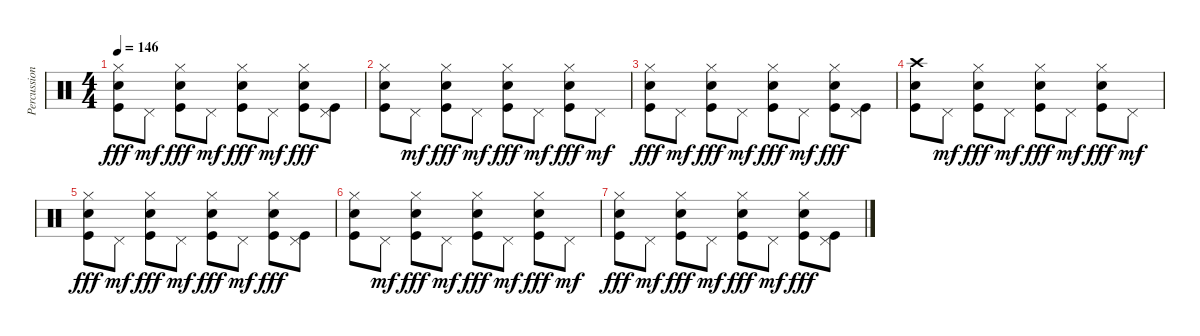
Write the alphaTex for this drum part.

\track ("Percussions" "Percussion") {instrument percussion}
\staff {score}
\articulation defaults
\ts (4 4)
\tempo 146
\clef neutral
\ks c
("Hi-Hat (closed)" "Snare (hit) 2" "Kick (hit)").8{dy fff} "Pedal Hi-Hat (hit)".8{dy mf} ("Hi-Hat (closed)" "Snare (hit) 2" "Kick (hit)").8{dy fff} "Pedal Hi-Hat (hit)".8{dy mf} ("Hi-Hat (closed)" "Snare (hit) 2" "Kick (hit)").8{dy fff} "Pedal Hi-Hat (hit)".8{dy mf} ("Hi-Hat (closed)" "Snare (hit) 2" "Kick (hit)").8{dy fff} ("Pedal Hi-Hat (hit)" "Kick (hit)").8 |
("Hi-Hat (closed)" "Snare (hit) 2" "Kick (hit)").8 "Pedal Hi-Hat (hit)".8{dy mf} ("Hi-Hat (closed)" "Snare (hit) 2" "Kick (hit)").8{dy fff} "Pedal Hi-Hat (hit)".8{dy mf} ("Hi-Hat (closed)" "Snare (hit) 2" "Kick (hit)").8{dy fff} "Pedal Hi-Hat (hit)".8{dy mf} ("Hi-Hat (closed)" "Snare (hit) 2" "Kick (hit)").8{dy fff} "Pedal Hi-Hat (hit)".8{dy mf} |
("Hi-Hat (closed)" "Snare (hit) 2" "Kick (hit)").8{dy fff} "Pedal Hi-Hat (hit)".8{dy mf} ("Hi-Hat (closed)" "Snare (hit) 2" "Kick (hit)").8{dy fff} "Pedal Hi-Hat (hit)".8{dy mf} ("Hi-Hat (closed)" "Snare (hit) 2" "Kick (hit)").8{dy fff} "Pedal Hi-Hat (hit)".8{dy mf} ("Hi-Hat (closed)" "Snare (hit) 2" "Kick (hit)").8{dy fff} ("Pedal Hi-Hat (hit)" "Kick (hit)").8 |
("Crash high (hit)" "Snare (hit) 2" "Kick (hit)").8{volume 0} "Pedal Hi-Hat (hit)".8{dy mf} ("Hi-Hat (closed)" "Snare (hit) 2" "Kick (hit)").8{dy fff} "Pedal Hi-Hat (hit)".8{dy mf} ("Hi-Hat (closed)" "Snare (hit) 2" "Kick (hit)").8{dy fff} "Pedal Hi-Hat (hit)".8{dy mf} ("Hi-Hat (closed)" "Snare (hit) 2" "Kick (hit)").8{dy fff} "Pedal Hi-Hat (hit)".8{dy mf} |
("Hi-Hat (closed)" "Snare (hit) 2" "Kick (hit)").8{dy fff} "Pedal Hi-Hat (hit)".8{dy mf} ("Hi-Hat (closed)" "Snare (hit) 2" "Kick (hit)").8{dy fff} "Pedal Hi-Hat (hit)".8{dy mf} ("Hi-Hat (closed)" "Snare (hit) 2" "Kick (hit)").8{dy fff} "Pedal Hi-Hat (hit)".8{dy mf} ("Hi-Hat (closed)" "Snare (hit) 2" "Kick (hit)").8{dy fff} ("Pedal Hi-Hat (hit)" "Kick (hit)").8 |
("Hi-Hat (closed)" "Snare (hit) 2" "Kick (hit)").8 "Pedal Hi-Hat (hit)".8{dy mf} ("Hi-Hat (closed)" "Snare (hit) 2" "Kick (hit)").8{dy fff} "Pedal Hi-Hat (hit)".8{dy mf} ("Hi-Hat (closed)" "Snare (hit) 2" "Kick (hit)").8{dy fff} "Pedal Hi-Hat (hit)".8{dy mf} ("Hi-Hat (closed)" "Snare (hit) 2" "Kick (hit)").8{dy fff} "Pedal Hi-Hat (hit)".8{dy mf} |
("Hi-Hat (closed)" "Snare (hit) 2" "Kick (hit)").8{dy fff} "Pedal Hi-Hat (hit)".8{dy mf} ("Hi-Hat (closed)" "Snare (hit) 2" "Kick (hit)").8{dy fff} "Pedal Hi-Hat (hit)".8{dy mf} ("Hi-Hat (closed)" "Snare (hit) 2" "Kick (hit)").8{dy fff} "Pedal Hi-Hat (hit)".8{dy mf} ("Hi-Hat (closed)" "Snare (hit) 2" "Kick (hit)").8{dy fff} ("Pedal Hi-Hat (hit)" "Kick (hit)").8
